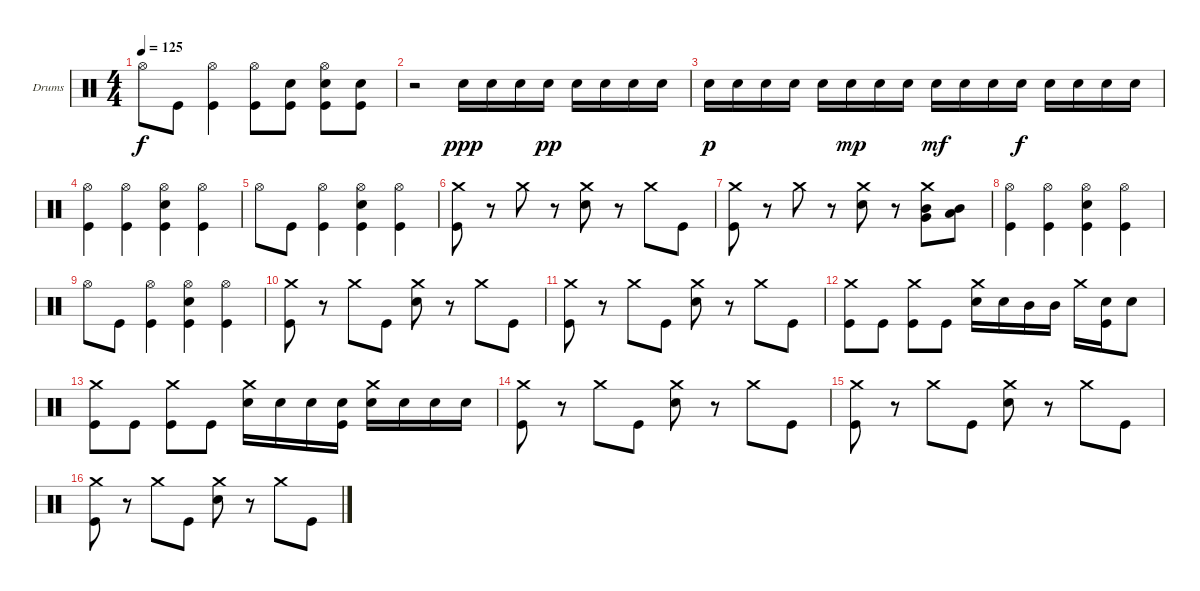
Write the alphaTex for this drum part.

\defaultSystemsLayout 4
\bracketExtendMode groupsimilarinstruments
\firstSystemTrackNameOrientation horizontal
\otherSystemsTrackNameOrientation horizontal
\track ("Drumkit" "Drums") {instrument percussion}
\staff {score}
\articulation defaults
\ts (4 4)
\tempo 125
\clef neutral
\ks c "Hi-Hat (open)".8{dy f} "Kick (hit)".8
("Kick (hit)" "Hi-Hat (open)").4 ("Kick (hit)" "Hi-Hat (open)").8 ("Kick (hit)" "Snare (hit) 2").8 ("Kick (hit)" "Snare (hit) 2" "Hi-Hat (open)").8 ("Kick (hit)" "Snare (hit) 2").8 |
r.2 "Snare (hit) 2".16{dy ppp} "Snare (hit) 2".16 "Snare (hit) 2".16 "Snare (hit) 2".16{dy pp} "Snare (hit) 2".16 "Snare (hit) 2".16 "Snare (hit) 2".16 "Snare (hit) 2".16 |
"Snare (hit) 2".16{dy p} "Snare (hit) 2".16 "Snare (hit) 2".16 "Snare (hit) 2".16 "Snare (hit) 2".16 "Snare (hit) 2".16{dy mp} "Snare (hit) 2".16 "Snare (hit) 2".16 "Snare (hit) 2".16{dy mf} "Snare (hit) 2".16 "Snare (hit) 2".16 "Snare (hit) 2".16{dy f} "Snare (hit) 2".16 "Snare (hit) 2".16 "Snare (hit) 2".16 "Snare (hit) 2".16 |
("Kick (hit)" "Hi-Hat (open)").4 ("Kick (hit)" "Hi-Hat (open)").4 ("Kick (hit)" "Snare (hit) 2" "Hi-Hat (open)").4 ("Kick (hit)" "Hi-Hat (open)").4 |
"Hi-Hat (open)".8 "Kick (hit)".8 ("Kick (hit)" "Hi-Hat (open)").4 ("Kick (hit)" "Snare (hit) 2" "Hi-Hat (open)").4 ("Kick (hit)" "Hi-Hat (open)").4 |
("Kick (hit)" "Crash medium (hit)").8 r.8 "Crash medium (hit)".8 r.8 ("Crash medium (hit)" "Snare (hit) 2").8 r.8 "Crash medium (hit)".8 "Kick (hit)".8 |
("Kick (hit)" "Crash medium (hit)").8 r.8 "Crash medium (hit)".8 r.8 ("Crash medium (hit)" "Snare (hit) 2").8 r.8 ("Crash medium (hit)" "Mid Tom (hit)" "Very Low Tom (hit)").8 ("Low Tom (hit)" "Mid Tom (hit)").8 |
("Kick (hit)" "Hi-Hat (open)").4 ("Kick (hit)" "Hi-Hat (open)").4 ("Kick (hit)" "Snare (hit) 2" "Hi-Hat (open)").4 ("Kick (hit)" "Hi-Hat (open)").4 |
"Hi-Hat (open)".8 "Kick (hit)".8 ("Kick (hit)" "Hi-Hat (open)").4 ("Kick (hit)" "Snare (hit) 2" "Hi-Hat (open)").4 ("Kick (hit)" "Hi-Hat (open)").4 |
("Crash medium (hit)" "Kick (hit)").8 r.8 "Crash medium (hit)".8 "Kick (hit)".8 ("Crash medium (hit)" "Snare (hit) 2").8 r.8 "Crash medium (hit)".8 "Kick (hit)".8 |
("Crash medium (hit)" "Kick (hit)").8 r.8 "Crash medium (hit)".8 "Kick (hit)".8 ("Crash medium (hit)" "Snare (hit) 2").8 r.8 "Crash medium (hit)".8 "Kick (hit)".8 |
("Crash medium (hit)" "Kick (hit)").8 "Kick (hit)".8 ("Crash medium (hit)" "Kick (hit)").8 "Kick (hit)".8 ("Crash medium (hit)" "Snare (hit) 2").16 "Snare (hit) 2".16 "Mid Tom (hit)".16 "Mid Tom (hit)".16 "Crash medium (hit)".16 ("Kick (hit)" "Snare (hit) 2").16 "Snare (hit) 2".8 |
("Crash medium (hit)" "Kick (hit)").8 "Kick (hit)".8 ("Crash medium (hit)" "Kick (hit)").8 "Kick (hit)".8 ("Crash medium (hit)" "Snare (hit) 2").16 "Snare (hit) 2".16 "Snare (hit) 2".16 ("Kick (hit)" "Snare (hit) 2").16 ("Snare (hit) 2" "Crash medium (hit)").16 "Snare (hit) 2".16 "Snare (hit) 2".16 "Snare (hit) 2".16 |
("Crash medium (hit)" "Kick (hit)").8 r.8 "Crash medium (hit)".8 "Kick (hit)".8 ("Crash medium (hit)" "Snare (hit) 2").8 r.8 "Crash medium (hit)".8 "Kick (hit)".8 |
("Crash medium (hit)" "Kick (hit)").8 r.8 "Crash medium (hit)".8 "Kick (hit)".8 ("Crash medium (hit)" "Snare (hit) 2").8 r.8 "Crash medium (hit)".8 "Kick (hit)".8 |
("Crash medium (hit)" "Kick (hit)").8 r.8 "Crash medium (hit)".8 "Kick (hit)".8 ("Crash medium (hit)" "Snare (hit) 2").8 r.8 "Crash medium (hit)".8 "Kick (hit)".8
